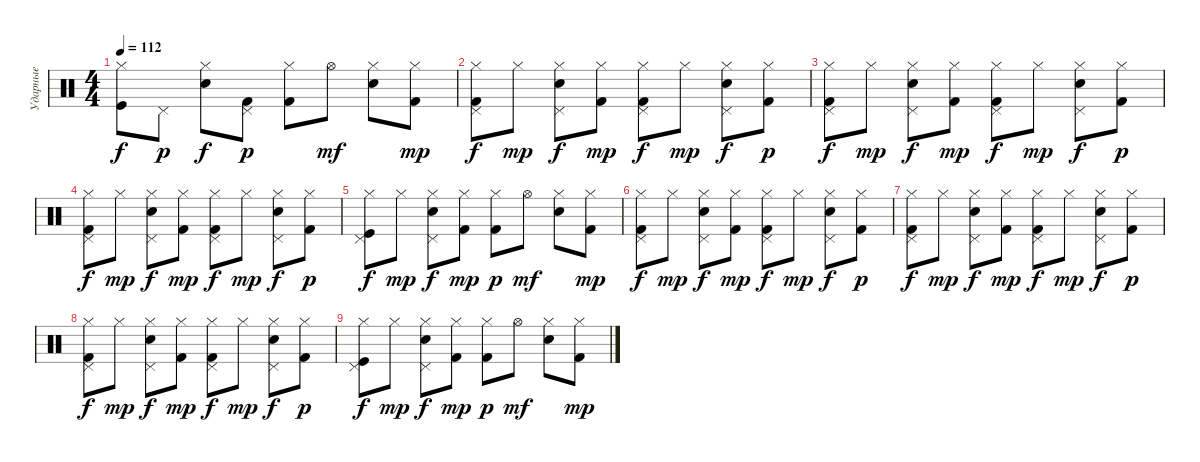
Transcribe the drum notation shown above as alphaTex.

\track ("Ударные" "Ударные") {instrument percussion}
\staff {score}
\articulation defaults
\ts (4 4)
\tempo 112
\clef neutral
\ks c
("Hi-Hat (closed)" "Kick (hit)").8{dy f} "Pedal Hi-Hat (hit)".8{dy p} ("Hi-Hat (closed)" "Electric Snare (hit)").8{dy f} ("Pedal Hi-Hat (hit)" "Kick (hit) 2").8{dy p} ("Hi-Hat (closed)" "Kick (hit) 2").8 "Hi-Hat (open)".8{dy mf} ("Hi-Hat (closed)" "Electric Snare (hit)").8 ("Hi-Hat (closed)" "Kick (hit) 2").8{dy mp} |
("Pedal Hi-Hat (hit)" "Hi-Hat (closed)" "Kick (hit) 2").8{dy f} "Hi-Hat (closed)".8{dy mp} ("Pedal Hi-Hat (hit)" "Hi-Hat (closed)" "Electric Snare (hit)").8{dy f} ("Hi-Hat (closed)" "Kick (hit) 2").8{dy mp} ("Pedal Hi-Hat (hit)" "Hi-Hat (closed)" "Kick (hit) 2").8{dy f} "Hi-Hat (closed)".8{dy mp} ("Pedal Hi-Hat (hit)" "Hi-Hat (closed)" "Electric Snare (hit)").8{dy f} ("Hi-Hat (closed)" "Kick (hit) 2").8{dy p} |
("Pedal Hi-Hat (hit)" "Hi-Hat (closed)" "Kick (hit) 2").8{dy f} "Hi-Hat (closed)".8{dy mp} ("Pedal Hi-Hat (hit)" "Hi-Hat (closed)" "Electric Snare (hit)").8{dy f} ("Hi-Hat (closed)" "Kick (hit) 2").8{dy mp} ("Pedal Hi-Hat (hit)" "Hi-Hat (closed)" "Kick (hit) 2").8{dy f} "Hi-Hat (closed)".8{dy mp} ("Pedal Hi-Hat (hit)" "Hi-Hat (closed)" "Electric Snare (hit)").8{dy f} ("Hi-Hat (closed)" "Kick (hit) 2").8{dy p} |
("Pedal Hi-Hat (hit)" "Hi-Hat (closed)" "Kick (hit) 2").8{dy f} "Hi-Hat (closed)".8{dy mp} ("Pedal Hi-Hat (hit)" "Hi-Hat (closed)" "Electric Snare (hit)").8{dy f} ("Hi-Hat (closed)" "Kick (hit) 2").8{dy mp} ("Pedal Hi-Hat (hit)" "Hi-Hat (closed)" "Kick (hit) 2").8{dy f} "Hi-Hat (closed)".8{dy mp} ("Pedal Hi-Hat (hit)" "Hi-Hat (closed)" "Electric Snare (hit)").8{dy f} ("Hi-Hat (closed)" "Kick (hit) 2").8{dy p} |
("Pedal Hi-Hat (hit)" "Hi-Hat (closed)" "Kick (hit)").8{dy f} "Hi-Hat (closed)".8{dy mp} ("Pedal Hi-Hat (hit)" "Hi-Hat (closed)" "Electric Snare (hit)").8{dy f} ("Hi-Hat (closed)" "Kick (hit) 2").8{dy mp} ("Hi-Hat (closed)" "Kick (hit) 2").8{dy p} "Hi-Hat (open)".8{dy mf} ("Hi-Hat (closed)" "Electric Snare (hit)").8 ("Hi-Hat (closed)" "Kick (hit) 2").8{dy mp} |
("Pedal Hi-Hat (hit)" "Hi-Hat (closed)" "Kick (hit) 2").8{dy f} "Hi-Hat (closed)".8{dy mp} ("Pedal Hi-Hat (hit)" "Hi-Hat (closed)" "Electric Snare (hit)").8{dy f} ("Hi-Hat (closed)" "Kick (hit) 2").8{dy mp} ("Pedal Hi-Hat (hit)" "Hi-Hat (closed)" "Kick (hit) 2").8{dy f} "Hi-Hat (closed)".8{dy mp} ("Pedal Hi-Hat (hit)" "Hi-Hat (closed)" "Electric Snare (hit)").8{dy f} ("Hi-Hat (closed)" "Kick (hit) 2").8{dy p} |
("Pedal Hi-Hat (hit)" "Hi-Hat (closed)" "Kick (hit) 2").8{dy f} "Hi-Hat (closed)".8{dy mp} ("Pedal Hi-Hat (hit)" "Hi-Hat (closed)" "Electric Snare (hit)").8{dy f} ("Hi-Hat (closed)" "Kick (hit) 2").8{dy mp} ("Pedal Hi-Hat (hit)" "Hi-Hat (closed)" "Kick (hit) 2").8{dy f} "Hi-Hat (closed)".8{dy mp} ("Pedal Hi-Hat (hit)" "Hi-Hat (closed)" "Electric Snare (hit)").8{dy f} ("Hi-Hat (closed)" "Kick (hit) 2").8{dy p} |
("Pedal Hi-Hat (hit)" "Hi-Hat (closed)" "Kick (hit) 2").8{dy f} "Hi-Hat (closed)".8{dy mp} ("Pedal Hi-Hat (hit)" "Hi-Hat (closed)" "Electric Snare (hit)").8{dy f} ("Hi-Hat (closed)" "Kick (hit) 2").8{dy mp} ("Pedal Hi-Hat (hit)" "Hi-Hat (closed)" "Kick (hit) 2").8{dy f} "Hi-Hat (closed)".8{dy mp} ("Pedal Hi-Hat (hit)" "Hi-Hat (closed)" "Electric Snare (hit)").8{dy f} ("Hi-Hat (closed)" "Kick (hit) 2").8{dy p} |
("Pedal Hi-Hat (hit)" "Hi-Hat (closed)" "Kick (hit)").8{dy f} "Hi-Hat (closed)".8{dy mp} ("Pedal Hi-Hat (hit)" "Hi-Hat (closed)" "Electric Snare (hit)").8{dy f} ("Hi-Hat (closed)" "Kick (hit) 2").8{dy mp} ("Hi-Hat (closed)" "Kick (hit) 2").8{dy p} "Hi-Hat (open)".8{dy mf} ("Hi-Hat (closed)" "Electric Snare (hit)").8 ("Hi-Hat (closed)" "Kick (hit) 2").8{dy mp}
